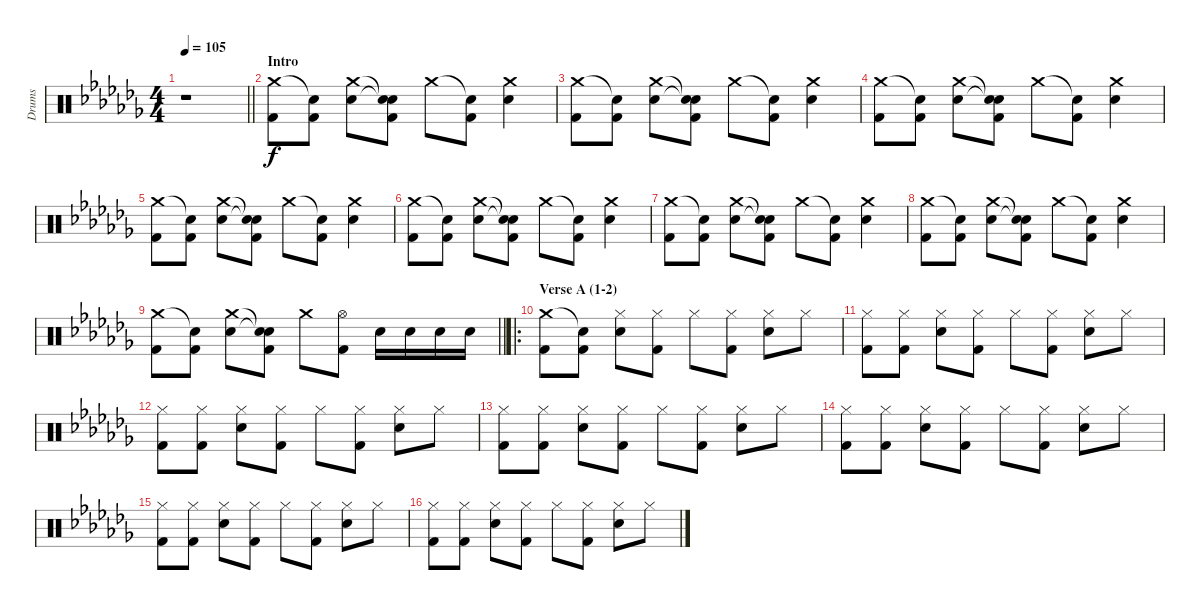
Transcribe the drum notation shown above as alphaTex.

\track ("Drums" "Drums") {instrument percussion}
\staff {score}
\articulation defaults
\ts (4 4)
\tempo 105
\clef neutral
\barLineRight lightlight
\ks abminor
r.1{dy f} |
\section ("" "Intro")
("Crash medium (hit)" "Kick (hit) 2").8 ("Snare (hit)"{t} "Kick (hit) 2").8 ("Crash medium (hit)" "Electric Snare (hit)").8 ("Snare (hit)"{t} "Snare (hit)"{t} "Kick (hit) 2").8 "Crash medium (hit)".8 ("Snare (hit)"{t} "Kick (hit) 2").8 ("Crash medium (hit)" "Electric Snare (hit)").4 |
("Crash medium (hit)" "Kick (hit) 2").8 ("Snare (hit)"{t} "Kick (hit) 2").8 ("Crash medium (hit)" "Electric Snare (hit)").8 ("Snare (hit)"{t} "Snare (hit)"{t} "Kick (hit) 2").8 "Crash medium (hit)".8 ("Snare (hit)"{t} "Kick (hit) 2").8 ("Crash medium (hit)" "Electric Snare (hit)").4 |
("Crash medium (hit)" "Kick (hit) 2").8 ("Snare (hit)"{t} "Kick (hit) 2").8 ("Crash medium (hit)" "Electric Snare (hit)").8 ("Snare (hit)"{t} "Snare (hit)"{t} "Kick (hit) 2").8 "Crash medium (hit)".8 ("Snare (hit)"{t} "Kick (hit) 2").8 ("Crash medium (hit)" "Electric Snare (hit)").4 |
("Crash medium (hit)" "Kick (hit) 2").8 ("Snare (hit)"{t} "Kick (hit) 2").8 ("Crash medium (hit)" "Electric Snare (hit)").8 ("Snare (hit)"{t} "Snare (hit)"{t} "Kick (hit) 2").8 "Crash medium (hit)".8 ("Snare (hit)"{t} "Kick (hit) 2").8 ("Crash medium (hit)" "Electric Snare (hit)").4 |
("Crash medium (hit)" "Kick (hit) 2").8 ("Snare (hit)"{t} "Kick (hit) 2").8 ("Crash medium (hit)" "Electric Snare (hit)").8 ("Snare (hit)"{t} "Snare (hit)"{t} "Kick (hit) 2").8 "Crash medium (hit)".8 ("Snare (hit)"{t} "Kick (hit) 2").8 ("Crash medium (hit)" "Electric Snare (hit)").4 |
("Crash medium (hit)" "Kick (hit) 2").8 ("Snare (hit)"{t} "Kick (hit) 2").8 ("Crash medium (hit)" "Electric Snare (hit)").8 ("Snare (hit)"{t} "Snare (hit)"{t} "Kick (hit) 2").8 "Crash medium (hit)".8 ("Snare (hit)"{t} "Kick (hit) 2").8 ("Crash medium (hit)" "Electric Snare (hit)").4 |
("Crash medium (hit)" "Kick (hit) 2").8 ("Snare (hit)"{t} "Kick (hit) 2").8 ("Crash medium (hit)" "Electric Snare (hit)").8 ("Snare (hit)"{t} "Snare (hit)"{t} "Kick (hit) 2").8 "Crash medium (hit)".8 ("Snare (hit)"{t} "Kick (hit) 2").8 ("Crash medium (hit)" "Electric Snare (hit)").4 |
\barLineRight lightlight
("Crash medium (hit)" "Kick (hit) 2").8 ("Snare (hit)"{t} "Kick (hit) 2").8 ("Crash medium (hit)" "Electric Snare (hit)").8 ("Snare (hit)"{t} "Snare (hit)"{t} "Kick (hit) 2").8 "Crash medium (hit)".8 ("Hi-Hat (open)" "Kick (hit) 2").8 "Electric Snare (hit)".16 "Electric Snare (hit)".16 "Electric Snare (hit)".16 "Electric Snare (hit)".16 |
\ro
\section ("" "Verse A (1-2)")
("Crash medium (hit)" "Kick (hit) 2").8 ("Snare (hit)"{t} "Kick (hit) 2").8 ("Hi-Hat (closed)" "Electric Snare (hit)").8 ("Hi-Hat (closed)" "Kick (hit) 2").8 "Hi-Hat (closed)".8 ("Hi-Hat (closed)" "Kick (hit) 2").8 ("Hi-Hat (closed)" "Electric Snare (hit)").8 "Hi-Hat (closed)".8 |
("Hi-Hat (closed)" "Kick (hit) 2").8 ("Hi-Hat (closed)" "Kick (hit) 2").8 ("Hi-Hat (closed)" "Electric Snare (hit)").8 ("Hi-Hat (closed)" "Kick (hit) 2").8 "Hi-Hat (closed)".8 ("Hi-Hat (closed)" "Kick (hit) 2").8 ("Hi-Hat (closed)" "Electric Snare (hit)").8 "Hi-Hat (closed)".8 |
("Hi-Hat (closed)" "Kick (hit) 2").8 ("Hi-Hat (closed)" "Kick (hit) 2").8 ("Hi-Hat (closed)" "Electric Snare (hit)").8 ("Hi-Hat (closed)" "Kick (hit) 2").8 "Hi-Hat (closed)".8 ("Hi-Hat (closed)" "Kick (hit) 2").8 ("Hi-Hat (closed)" "Electric Snare (hit)").8 "Hi-Hat (closed)".8 |
("Hi-Hat (closed)" "Kick (hit) 2").8 ("Hi-Hat (closed)" "Kick (hit) 2").8 ("Hi-Hat (closed)" "Electric Snare (hit)").8 ("Hi-Hat (closed)" "Kick (hit) 2").8 "Hi-Hat (closed)".8 ("Hi-Hat (closed)" "Kick (hit) 2").8 ("Hi-Hat (closed)" "Electric Snare (hit)").8 "Hi-Hat (closed)".8 |
("Hi-Hat (closed)" "Kick (hit) 2").8 ("Hi-Hat (closed)" "Kick (hit) 2").8 ("Hi-Hat (closed)" "Electric Snare (hit)").8 ("Hi-Hat (closed)" "Kick (hit) 2").8 "Hi-Hat (closed)".8 ("Hi-Hat (closed)" "Kick (hit) 2").8 ("Hi-Hat (closed)" "Electric Snare (hit)").8 "Hi-Hat (closed)".8 |
("Hi-Hat (closed)" "Kick (hit) 2").8 ("Hi-Hat (closed)" "Kick (hit) 2").8 ("Hi-Hat (closed)" "Electric Snare (hit)").8 ("Hi-Hat (closed)" "Kick (hit) 2").8 "Hi-Hat (closed)".8 ("Hi-Hat (closed)" "Kick (hit) 2").8 ("Hi-Hat (closed)" "Electric Snare (hit)").8 "Hi-Hat (closed)".8 |
("Hi-Hat (closed)" "Kick (hit) 2").8 ("Hi-Hat (closed)" "Kick (hit) 2").8 ("Hi-Hat (closed)" "Electric Snare (hit)").8 ("Hi-Hat (closed)" "Kick (hit) 2").8 "Hi-Hat (closed)".8 ("Hi-Hat (closed)" "Kick (hit) 2").8 ("Hi-Hat (closed)" "Electric Snare (hit)").8 "Hi-Hat (closed)".8
